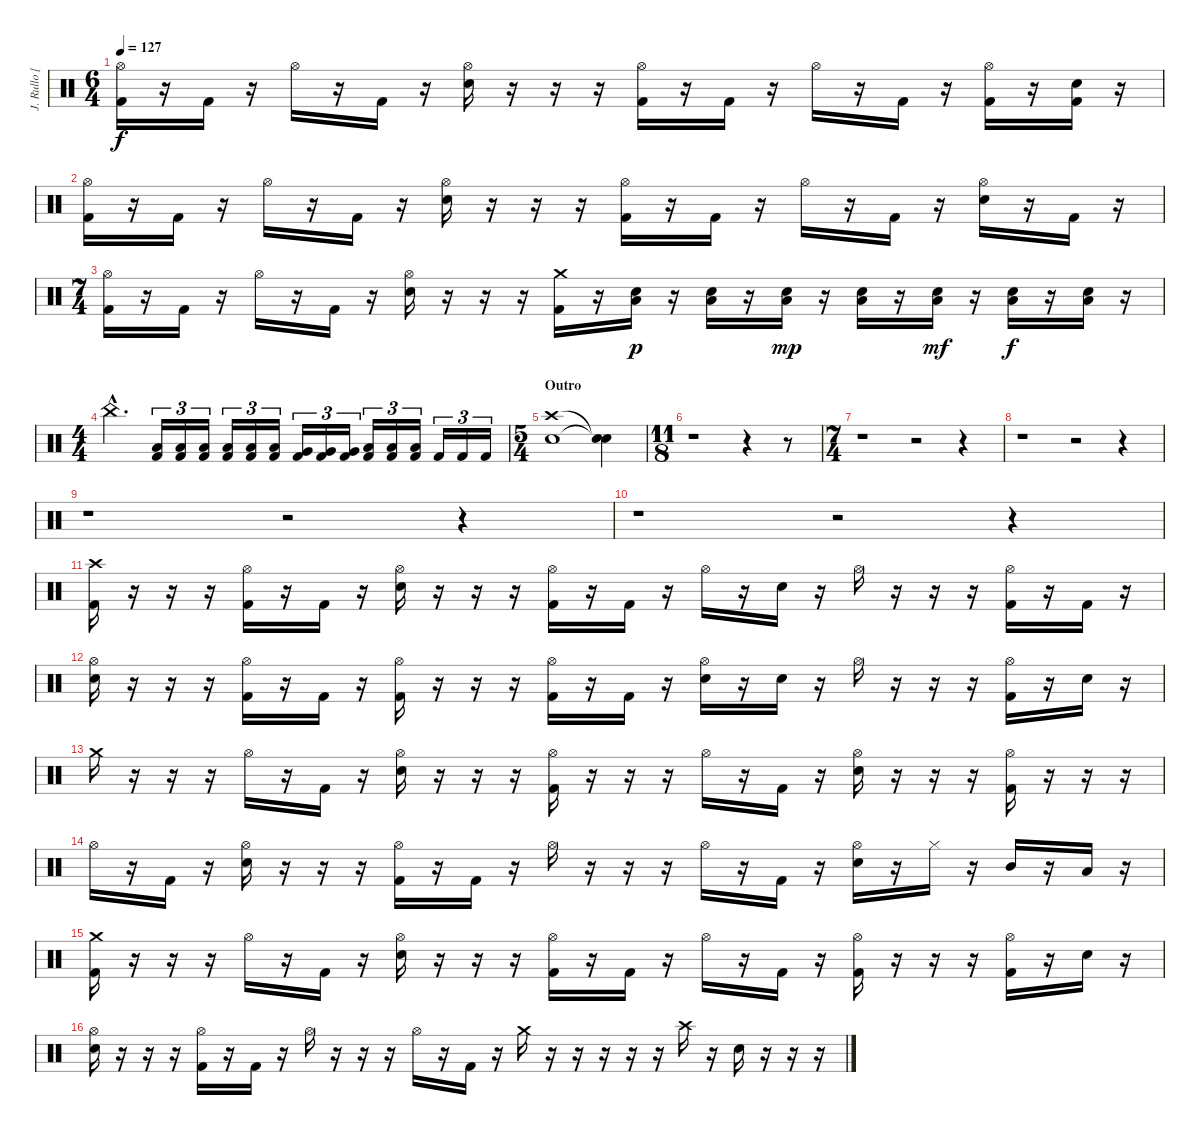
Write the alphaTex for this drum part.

\track ("J. Rullo [Drums]" "J. Rullo [") {instrument percussion}
\staff {score}
\articulation defaults
\ts (6 4)
\tempo 127
\clef neutral
\ks c
("Hi-Hat (open)" "Kick (hit) 2").16{dy f} r.16 "Kick (hit) 2".16 r.16 "Hi-Hat (open)".16 r.16 "Kick (hit) 2".16 r.16 ("Hi-Hat (open)" "Electric Snare (hit)").16 r.16 r.16 r.16 ("Hi-Hat (open)" "Kick (hit) 2").16 r.16 "Kick (hit) 2".16 r.16 "Hi-Hat (open)".16 r.16 "Kick (hit) 2".16 r.16 ("Hi-Hat (open)" "Kick (hit) 2").16 r.16 ("Electric Snare (hit)" "Kick (hit) 2").16 r.16 |
("Hi-Hat (open)" "Kick (hit) 2").16 r.16 "Kick (hit) 2".16 r.16 "Hi-Hat (open)".16 r.16 "Kick (hit) 2".16 r.16 ("Hi-Hat (open)" "Electric Snare (hit)").16 r.16 r.16 r.16 ("Hi-Hat (open)" "Kick (hit) 2").16 r.16 "Kick (hit) 2".16 r.16 "Hi-Hat (open)".16 r.16 "Kick (hit) 2".16 r.16 ("Hi-Hat (open)" "Electric Snare (hit)").16 r.16 "Kick (hit) 2".16 r.16 |
\ts (7 4)
("Hi-Hat (open)" "Kick (hit) 2").16 r.16 "Kick (hit) 2".16 r.16 "Hi-Hat (open)".16 r.16 "Kick (hit) 2".16 r.16 ("Hi-Hat (open)" "Electric Snare (hit)").16 r.16 r.16 r.16 ("Crash medium (hit)" "Kick (hit) 2").16 r.16 ("Low Tom (hit)" "Electric Snare (hit)").16{dy p} r.16 ("Low Tom (hit)" "Electric Snare (hit)").16 r.16 ("Low Tom (hit)" "Electric Snare (hit)").16{dy mp} r.16 ("Low Tom (hit)" "Electric Snare (hit)").16 r.16 ("Low Tom (hit)" "Electric Snare (hit)").16{dy mf} r.16 ("Low Tom (hit)" "Electric Snare (hit)").16{dy f} r.16 ("Low Tom (hit)" "Electric Snare (hit)").16 r.16 |
\ts (4 4)
"China (hit)"{hac}.4{d} ("Low Tom (hit)" "Kick (hit) 2").16{tu (3 2)} ("Low Tom (hit)" "Kick (hit) 2").16{tu (3 2)} ("Low Tom (hit)" "Kick (hit) 2").16{tu (3 2)} ("Low Tom (hit)" "Kick (hit) 2").16{tu (3 2)} ("Low Tom (hit)" "Kick (hit) 2").16{tu (3 2)} ("Low Tom (hit)" "Kick (hit) 2").16{tu (3 2)} ("Very Low Tom (hit)" "Kick (hit) 2").16{tu (3 2)} ("Very Low Tom (hit)" "Kick (hit) 2").16{tu (3 2)} ("Very Low Tom (hit)" "Kick (hit) 2").16{tu (3 2)} ("Low Floor Tom (hit)" "Kick (hit) 2").16{tu (3 2)} ("Low Floor Tom (hit)" "Kick (hit) 2").16{tu (3 2)} ("Low Floor Tom (hit)" "Kick (hit) 2").16{tu (3 2)} "Kick (hit) 2".16{tu (3 2)} "Kick (hit) 2".16{tu (3 2)} "Kick (hit) 2".16{tu (3 2)} |
\ts (5 4)
\section ("" "Outro")
("Crash high (hit)" "Electric Snare (hit)").1 ("Snare (hit)"{t} "Snare (hit)"{t}).4 |
\ts (11 8)
r.1 r.4 r.8 |
\ts (7 4)
r.1 r.2 r.4 |
r.1 r.2 r.4 |
r.1 r.2 r.4 |
r.1 r.2 r.4 |
("Crash high (hit)" "Kick (hit) 2").16 r.16 r.16 r.16 ("Hi-Hat (open)" "Kick (hit) 2").16 r.16 "Kick (hit) 2".16 r.16 ("Hi-Hat (open)" "Electric Snare (hit)").16 r.16 r.16 r.16 ("Hi-Hat (open)" "Kick (hit) 2").16 r.16 "Kick (hit) 2".16 r.16 "Hi-Hat (open)".16 r.16 "Electric Snare (hit)".16 r.16 "Hi-Hat (open)".16 r.16 r.16 r.16 ("Hi-Hat (open)" "Kick (hit) 2").16 r.16 "Kick (hit) 2".16 r.16 |
("Hi-Hat (open)" "Electric Snare (hit)").16 r.16 r.16 r.16 ("Hi-Hat (open)" "Kick (hit) 2").16 r.16 "Kick (hit) 2".16 r.16 ("Hi-Hat (open)" "Kick (hit) 2").16 r.16 r.16 r.16 ("Hi-Hat (open)" "Kick (hit) 2").16 r.16 "Kick (hit) 2".16 r.16 ("Hi-Hat (open)" "Electric Snare (hit)").16 r.16 "Electric Snare (hit)".16 r.16 "Hi-Hat (open)".16 r.16 r.16 r.16 ("Hi-Hat (open)" "Kick (hit) 2").16 r.16 "Electric Snare (hit)".16 r.16 |
"Crash medium (hit)".16 r.16 r.16 r.16 "Hi-Hat (open)".16 r.16 "Kick (hit) 2".16 r.16 ("Hi-Hat (open)" "Electric Snare (hit)").16 r.16 r.16 r.16 ("Hi-Hat (open)" "Kick (hit) 2").16 r.16 r.16 r.16 "Hi-Hat (open)".16 r.16 "Kick (hit) 2".16 r.16 ("Hi-Hat (open)" "Electric Snare (hit)").16 r.16 r.16 r.16 ("Hi-Hat (open)" "Kick (hit) 2").16 r.16 r.16 r.16 |
"Hi-Hat (open)".16 r.16 "Kick (hit) 2".16 r.16 ("Hi-Hat (open)" "Electric Snare (hit)").16 r.16 r.16 r.16 ("Hi-Hat (open)" "Kick (hit) 2").16 r.16 "Kick (hit) 2".16 r.16 "Hi-Hat (open)".16 r.16 r.16 r.16 "Hi-Hat (open)".16 r.16 "Kick (hit) 2".16 r.16 ("Hi-Hat (open)" "Electric Snare (hit)").16 r.16 "Hi-Hat (closed)".16 r.16 "Mid Tom (hit)".16 r.16 "Low Tom (hit)".16 r.16 |
("Crash medium (hit)" "Kick (hit) 2").16 r.16 r.16 r.16 "Hi-Hat (open)".16 r.16 "Kick (hit) 2".16 r.16 ("Hi-Hat (open)" "Electric Snare (hit)").16 r.16 r.16 r.16 ("Hi-Hat (open)" "Kick (hit) 2").16 r.16 "Kick (hit) 2".16 r.16 "Hi-Hat (open)".16 r.16 "Kick (hit) 2".16 r.16 ("Hi-Hat (open)" "Kick (hit) 2").16 r.16 r.16 r.16 ("Hi-Hat (open)" "Kick (hit) 2").16 r.16 "Electric Snare (hit)".16 r.16 |
("Hi-Hat (open)" "Electric Snare (hit)").16 r.16 r.16 r.16 ("Hi-Hat (open)" "Kick (hit) 2").16 r.16 "Kick (hit) 2".16 r.16 "Hi-Hat (open)".16 r.16 r.16 r.16 "Hi-Hat (open)".16 r.16 "Kick (hit) 2".16 r.16 "Crash medium (hit)".16 r.16 r.16 r.16 r.16 r.16 "Crash high (hit)".16 r.16 "Electric Snare (hit)".16 r.16 r.16 r.16
